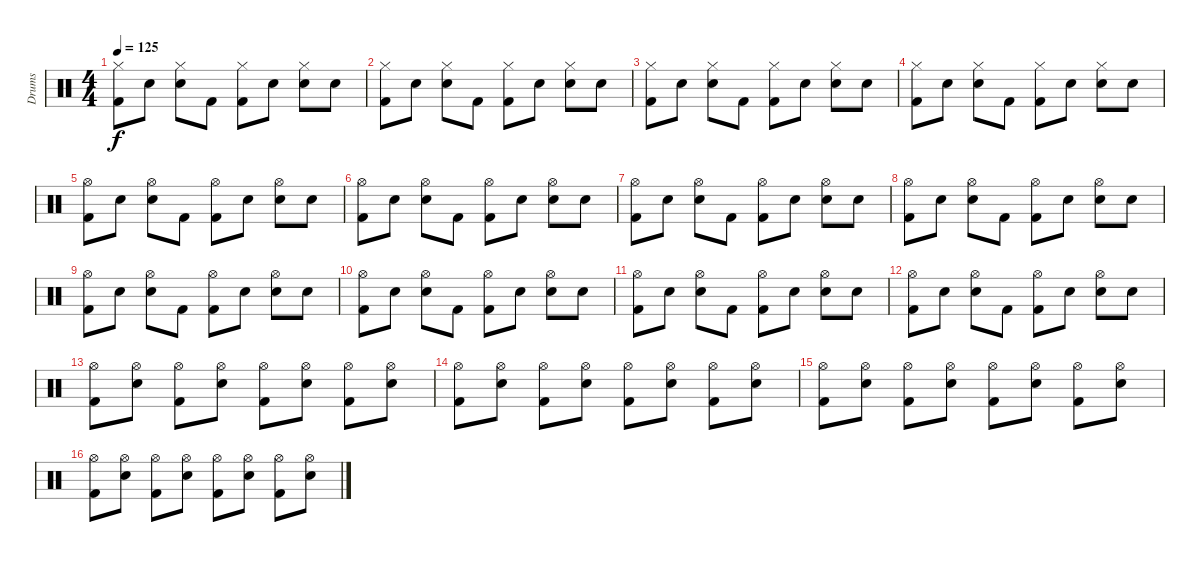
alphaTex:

\track ("Drums" "Drums") {instrument percussion}
\staff {score}
\articulation defaults
\ts (4 4)
\tempo 125
\clef neutral
\ks c
("Hi-Hat (closed)" "Kick (hit) 2").8{dy f} "Snare (hit)".8 ("Hi-Hat (closed)" "Snare (hit) 2").8 "Kick (hit) 2".8 ("Hi-Hat (closed)" "Kick (hit) 2").8 "Snare (hit)".8 ("Hi-Hat (closed)" "Snare (hit) 2").8 "Snare (hit)".8 |
("Hi-Hat (closed)" "Kick (hit) 2").8 "Snare (hit)".8 ("Hi-Hat (closed)" "Snare (hit) 2").8 "Kick (hit) 2".8 ("Hi-Hat (closed)" "Kick (hit) 2").8 "Snare (hit)".8 ("Hi-Hat (closed)" "Snare (hit) 2").8 "Snare (hit)".8 |
("Hi-Hat (closed)" "Kick (hit) 2").8 "Snare (hit)".8 ("Hi-Hat (closed)" "Snare (hit) 2").8 "Kick (hit) 2".8 ("Hi-Hat (closed)" "Kick (hit) 2").8 "Snare (hit)".8 ("Hi-Hat (closed)" "Snare (hit) 2").8 "Snare (hit)".8 |
("Hi-Hat (closed)" "Kick (hit) 2").8 "Snare (hit)".8 ("Hi-Hat (closed)" "Snare (hit) 2").8 "Kick (hit) 2".8 ("Hi-Hat (closed)" "Kick (hit) 2").8 "Snare (hit)".8 ("Hi-Hat (closed)" "Snare (hit) 2").8 "Snare (hit)".8 |
("Hi-Hat (open)" "Kick (hit) 2").8 "Snare (hit)".8 ("Hi-Hat (open)" "Snare (hit) 2").8 "Kick (hit) 2".8 ("Hi-Hat (open)" "Kick (hit) 2").8 "Snare (hit)".8 ("Hi-Hat (open)" "Snare (hit) 2").8 "Snare (hit)".8 |
("Hi-Hat (open)" "Kick (hit) 2").8 "Snare (hit)".8 ("Hi-Hat (open)" "Snare (hit) 2").8 "Kick (hit) 2".8 ("Hi-Hat (open)" "Kick (hit) 2").8 "Snare (hit)".8 ("Hi-Hat (open)" "Snare (hit) 2").8 "Snare (hit)".8 |
("Hi-Hat (open)" "Kick (hit) 2").8 "Snare (hit)".8 ("Hi-Hat (open)" "Snare (hit) 2").8 "Kick (hit) 2".8 ("Hi-Hat (open)" "Kick (hit) 2").8 "Snare (hit)".8 ("Hi-Hat (open)" "Snare (hit) 2").8 "Snare (hit)".8 |
("Hi-Hat (open)" "Kick (hit) 2").8 "Snare (hit)".8 ("Hi-Hat (open)" "Snare (hit) 2").8 "Kick (hit) 2".8 ("Hi-Hat (open)" "Kick (hit) 2").8 "Snare (hit)".8 ("Hi-Hat (open)" "Snare (hit) 2").8 "Snare (hit)".8 |
("Hi-Hat (open)" "Kick (hit) 2").8 "Snare (hit)".8 ("Hi-Hat (open)" "Snare (hit) 2").8 "Kick (hit) 2".8 ("Hi-Hat (open)" "Kick (hit) 2").8 "Snare (hit)".8 ("Hi-Hat (open)" "Snare (hit) 2").8 "Snare (hit)".8 |
("Hi-Hat (open)" "Kick (hit) 2").8 "Snare (hit)".8 ("Hi-Hat (open)" "Snare (hit) 2").8 "Kick (hit) 2".8 ("Hi-Hat (open)" "Kick (hit) 2").8 "Snare (hit)".8 ("Hi-Hat (open)" "Snare (hit) 2").8 "Snare (hit)".8 |
("Hi-Hat (open)" "Kick (hit) 2").8 "Snare (hit)".8 ("Hi-Hat (open)" "Snare (hit) 2").8 "Kick (hit) 2".8 ("Hi-Hat (open)" "Kick (hit) 2").8 "Snare (hit)".8 ("Hi-Hat (open)" "Snare (hit) 2").8 "Snare (hit)".8 |
("Hi-Hat (open)" "Kick (hit) 2").8 "Snare (hit)".8 ("Hi-Hat (open)" "Snare (hit) 2").8 "Kick (hit) 2".8 ("Hi-Hat (open)" "Kick (hit) 2").8 "Snare (hit)".8 ("Hi-Hat (open)" "Snare (hit) 2").8 "Snare (hit)".8 |
("Hi-Hat (open)" "Kick (hit) 2").8 ("Hi-Hat (open)" "Snare (hit) 2").8 ("Hi-Hat (open)" "Kick (hit) 2").8 ("Hi-Hat (open)" "Snare (hit) 2").8 ("Hi-Hat (open)" "Kick (hit) 2").8 ("Hi-Hat (open)" "Snare (hit) 2").8 ("Hi-Hat (open)" "Kick (hit) 2").8 ("Hi-Hat (open)" "Snare (hit) 2").8 |
("Hi-Hat (open)" "Kick (hit) 2").8 ("Hi-Hat (open)" "Snare (hit) 2").8 ("Hi-Hat (open)" "Kick (hit) 2").8 ("Hi-Hat (open)" "Snare (hit) 2").8 ("Hi-Hat (open)" "Kick (hit) 2").8 ("Hi-Hat (open)" "Snare (hit) 2").8 ("Hi-Hat (open)" "Kick (hit) 2").8 ("Hi-Hat (open)" "Snare (hit) 2").8 |
("Hi-Hat (open)" "Kick (hit) 2").8 ("Hi-Hat (open)" "Snare (hit) 2").8 ("Hi-Hat (open)" "Kick (hit) 2").8 ("Hi-Hat (open)" "Snare (hit) 2").8 ("Hi-Hat (open)" "Kick (hit) 2").8 ("Hi-Hat (open)" "Snare (hit) 2").8 ("Hi-Hat (open)" "Kick (hit) 2").8 ("Hi-Hat (open)" "Snare (hit) 2").8 |
("Hi-Hat (open)" "Kick (hit) 2").8 ("Hi-Hat (open)" "Snare (hit) 2").8 ("Hi-Hat (open)" "Kick (hit) 2").8 ("Hi-Hat (open)" "Snare (hit) 2").8 ("Hi-Hat (open)" "Kick (hit) 2").8 ("Hi-Hat (open)" "Snare (hit) 2").8 ("Hi-Hat (open)" "Kick (hit) 2").8 ("Hi-Hat (open)" "Snare (hit) 2").8
